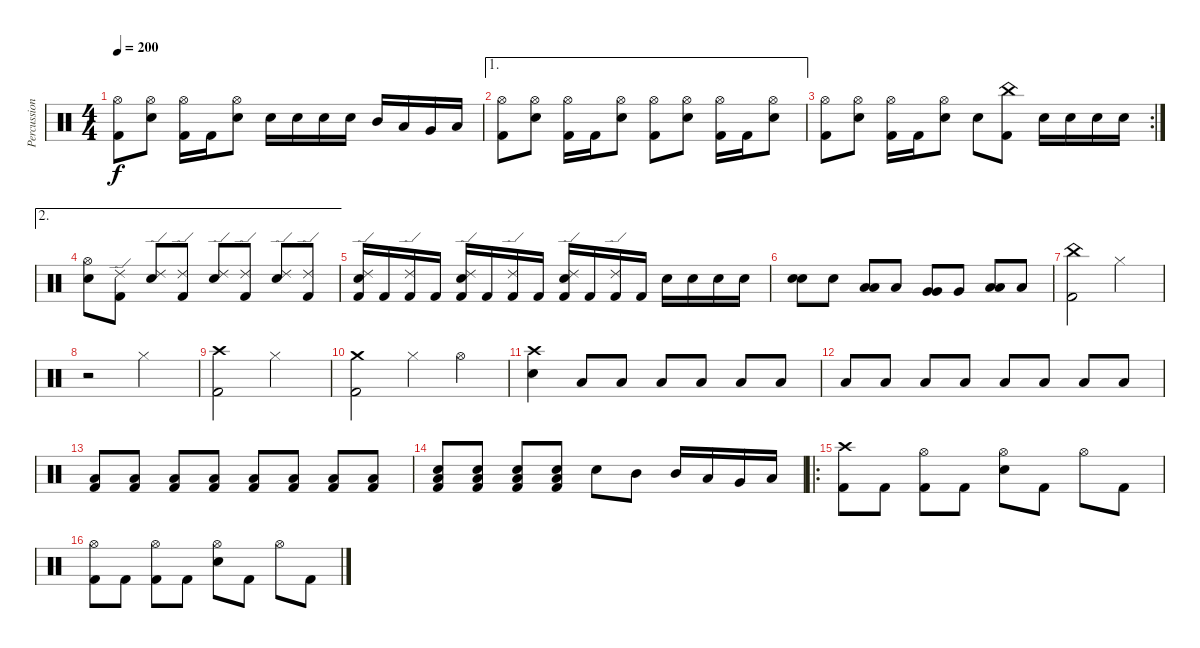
\track ("Percussions" "Percussion") {instrument percussion}
\staff {score}
\articulation defaults
\ts (4 4)
\tempo 200
\clef neutral
\ks c
("Hi-Hat (open)" "Kick (hit) 2").8{dy f} ("Hi-Hat (open)" "Snare (hit) 2").8 ("Hi-Hat (open)" "Kick (hit) 2").16 "Kick (hit) 2".16 ("Hi-Hat (open)" "Snare (hit) 2").8 "Snare (hit) 2".16 "Snare (hit) 2".16 "Snare (hit) 2".16 "Snare (hit) 2".16 "Mid Tom (hit)".16 "Low Tom (hit)".16 "Very Low Tom (hit)".16 "Low Floor Tom (hit)".16 |
\ae 1
("Hi-Hat (open)" "Kick (hit) 2").8 ("Hi-Hat (open)" "Snare (hit) 2").8 ("Hi-Hat (open)" "Kick (hit) 2").16 "Kick (hit) 2".16 ("Hi-Hat (open)" "Snare (hit) 2").8 ("Hi-Hat (open)" "Kick (hit) 2").8 ("Hi-Hat (open)" "Snare (hit) 2").8 ("Hi-Hat (open)" "Kick (hit) 2").16 "Kick (hit) 2".16 ("Hi-Hat (open)" "Snare (hit) 2").8 |
\rc 2
("Hi-Hat (open)" "Kick (hit) 2").8 ("Hi-Hat (open)" "Snare (hit) 2").8 ("Hi-Hat (open)" "Kick (hit) 2").16 "Kick (hit) 2".16 ("Hi-Hat (open)" "Snare (hit) 2").8 "Snare (hit) 2".8 ("China (hit)" "Kick (hit) 2").8 "Snare (hit) 2".16 "Snare (hit) 2".16 "Snare (hit) 2".16 "Snare (hit) 2".16 |
\ae 2
("Hi-Hat (open)" "Snare (hit) 2").8 ("Ride (edge) 2" "Kick (hit) 2").8 ("Ride (edge) 2" "Snare (hit) 2").8 ("Ride (edge) 2" "Kick (hit) 2").8 ("Ride (edge) 2" "Snare (hit) 2").8 ("Ride (edge) 2" "Kick (hit) 2").8 ("Ride (edge) 2" "Snare (hit) 2").8 ("Ride (edge) 2" "Kick (hit) 2").8 |
("Ride (edge) 2" "Snare (hit) 2" "Kick (hit) 2").16 "Kick (hit) 2".16 ("Ride (edge) 2" "Kick (hit) 2").16 "Kick (hit) 2".16 ("Ride (edge) 2" "Snare (hit) 2" "Kick (hit) 2").16 "Kick (hit) 2".16 ("Ride (edge) 2" "Kick (hit) 2").16 "Kick (hit) 2".16 ("Ride (edge) 2" "Snare (hit) 2" "Kick (hit) 2").16 "Kick (hit) 2".16 ("Ride (edge) 2" "Kick (hit) 2").16 "Kick (hit) 2".16 "Snare (hit) 2".16 "Snare (hit) 2".16 "Snare (hit) 2".16 "Snare (hit) 2".16 |
("Snare (hit) 2" "Snare (hit) 2").8{bd 120} "Snare (hit) 2".8 ("Low Tom (hit)" "Low Tom (hit)").8{bd 120} "Low Tom (hit)".8 ("Very Low Tom (hit)" "Very Low Tom (hit)").8{bd 120} "Very Low Tom (hit)".8 ("Low Floor Tom (hit)" "Low Floor Tom (hit)").8{bd 120} "Low Floor Tom (hit)".8 |
("China (hit)" "Kick (hit) 2").2 "Hi-Hat (closed)".2 |
r.2 "Hi-Hat (closed)".2 |
("Crash high (hit)" "Kick (hit) 2").2 "Hi-Hat (closed)".2 |
("Crash medium (hit)" "Kick (hit) 2").2 "Hi-Hat (closed)".4 "Hi-Hat (open)".4 |
("Crash high (hit)" "Snare (hit) 2").4 "Low Floor Tom (hit)".8 "Low Floor Tom (hit)".8 "Low Floor Tom (hit)".8 "Low Floor Tom (hit)".8 "Low Floor Tom (hit)".8 "Low Floor Tom (hit)".8 |
"Low Floor Tom (hit)".8 "Low Floor Tom (hit)".8 "Low Floor Tom (hit)".8 "Low Floor Tom (hit)".8 "Low Floor Tom (hit)".8 "Low Floor Tom (hit)".8 "Low Floor Tom (hit)".8 "Low Floor Tom (hit)".8 |
("Low Floor Tom (hit)" "Kick (hit) 2").8 ("Low Floor Tom (hit)" "Kick (hit) 2").8 ("Low Floor Tom (hit)" "Kick (hit) 2").8 ("Low Floor Tom (hit)" "Kick (hit) 2").8 ("Low Floor Tom (hit)" "Kick (hit) 2").8 ("Low Floor Tom (hit)" "Kick (hit) 2").8 ("Low Floor Tom (hit)" "Kick (hit) 2").8 ("Low Floor Tom (hit)" "Kick (hit) 2").8 |
("Snare (hit) 2" "Low Floor Tom (hit)" "Kick (hit) 2").8 ("Snare (hit) 2" "Low Floor Tom (hit)" "Kick (hit) 2").8 ("Snare (hit) 2" "Low Floor Tom (hit)" "Kick (hit) 2").8 ("Snare (hit) 2" "Low Floor Tom (hit)" "Kick (hit) 2").8 "Snare (hit) 2".8 "Mid Tom (hit)".8 "Mid Tom (hit)".16 "Low Tom (hit)".16 "Very Low Tom (hit)".16 "Low Floor Tom (hit)".16 |
\ro
("Crash high (hit)" "Kick (hit) 2").8 "Kick (hit) 2".8 ("Hi-Hat (open)" "Kick (hit) 2").8 "Kick (hit) 2".8 ("Hi-Hat (open)" "Snare (hit) 2").8 "Kick (hit) 2".8 "Hi-Hat (open)".8 "Kick (hit) 2".8 |
("Hi-Hat (open)" "Kick (hit) 2").8 "Kick (hit) 2".8 ("Hi-Hat (open)" "Kick (hit) 2").8 "Kick (hit) 2".8 ("Hi-Hat (open)" "Snare (hit) 2").8 "Kick (hit) 2".8 "Hi-Hat (open)".8 "Kick (hit) 2".8
